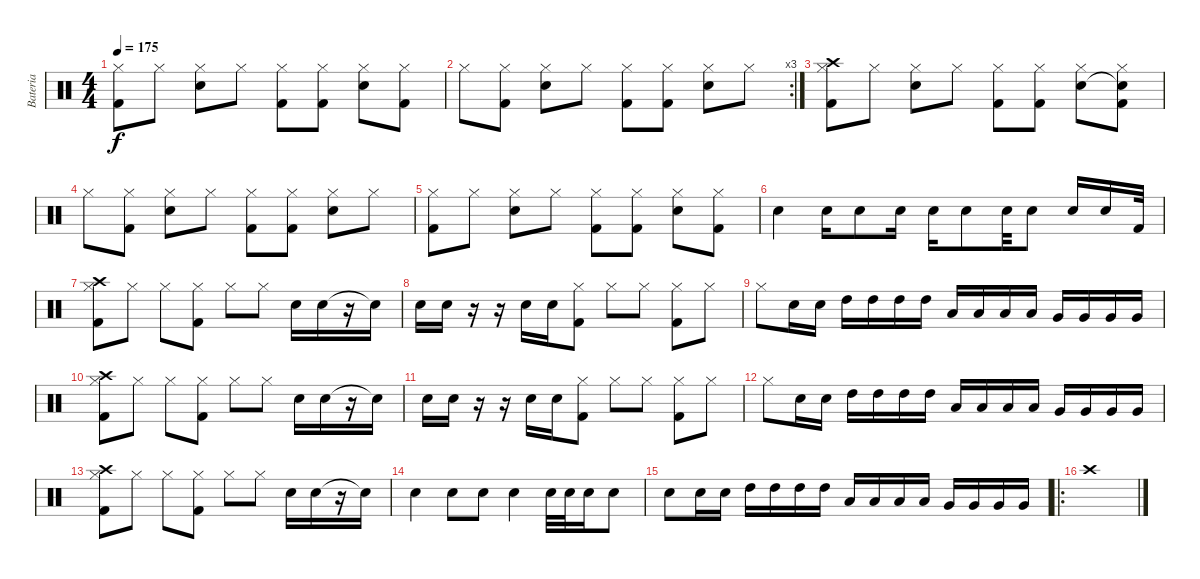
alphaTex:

\track ("Bateria" "Bateria") {instrument percussion}
\staff {score}
\articulation defaults
\ts (4 4)
\tempo 175
\clef neutral
\ks c
("Hi-Hat (closed)" "Kick (hit) 2").8{dy f} "Hi-Hat (closed)".8 ("Hi-Hat (closed)" "Snare (hit) 2").8 "Hi-Hat (closed)".8 ("Hi-Hat (closed)" "Kick (hit) 2").8 ("Hi-Hat (closed)" "Kick (hit) 2").8 ("Hi-Hat (closed)" "Snare (hit) 2").8 ("Hi-Hat (closed)" "Kick (hit) 2").8 |
\rc 3 "Hi-Hat (closed)".8
("Hi-Hat (closed)" "Kick (hit) 2").8 ("Hi-Hat (closed)" "Snare (hit) 2").8 "Hi-Hat (closed)".8 ("Hi-Hat (closed)" "Kick (hit) 2").8 ("Hi-Hat (closed)" "Kick (hit) 2").8 ("Hi-Hat (closed)" "Snare (hit) 2").8 "Hi-Hat (closed)".8 |
("Hi-Hat (closed)" "Crash high (hit)" "Kick (hit) 2").8 "Hi-Hat (closed)".8 ("Hi-Hat (closed)" "Snare (hit) 2").8 "Hi-Hat (closed)".8 ("Hi-Hat (closed)" "Kick (hit) 2").8 ("Hi-Hat (closed)" "Kick (hit) 2").8 ("Hi-Hat (closed)" "Snare (hit) 2").8 ("Hi-Hat (closed)" "Snare (hit)"{t} "Kick (hit) 2").8 |
"Hi-Hat (closed)".8 ("Hi-Hat (closed)" "Kick (hit) 2").8 ("Hi-Hat (closed)" "Snare (hit) 2").8 "Hi-Hat (closed)".8 ("Hi-Hat (closed)" "Kick (hit) 2").8 ("Hi-Hat (closed)" "Kick (hit) 2").8 ("Hi-Hat (closed)" "Snare (hit) 2").8 "Hi-Hat (closed)".8 |
("Hi-Hat (closed)" "Kick (hit) 2").8 "Hi-Hat (closed)".8 ("Hi-Hat (closed)" "Snare (hit) 2").8 "Hi-Hat (closed)".8 ("Hi-Hat (closed)" "Kick (hit) 2").8 ("Hi-Hat (closed)" "Kick (hit) 2").8 ("Hi-Hat (closed)" "Snare (hit) 2").8 ("Hi-Hat (closed)" "Kick (hit) 2").8 |
"Snare (hit) 2".4 "Snare (hit) 2".16 "Snare (hit) 2".8 "Snare (hit) 2".16 "Snare (hit) 2".16 "Snare (hit) 2".8 "Snare (hit) 2".32 "Snare (hit) 2".8 "Snare (hit) 2".16 "Snare (hit) 2".16 "Kick (hit) 2".32 |
("Hi-Hat (closed)" "Crash high (hit)" "Kick (hit) 2").8 "Hi-Hat (closed)".8 "Hi-Hat (closed)".8 ("Hi-Hat (closed)" "Kick (hit) 2").8 "Hi-Hat (closed)".8 "Hi-Hat (closed)".8 "Snare (hit) 2".16 "Snare (hit) 2".16 r.16 "Snare (hit)"{t}.16 |
"Snare (hit) 2".16 "Snare (hit) 2".16 r.16 r.16 "Snare (hit) 2".16 "Snare (hit) 2".16 ("Hi-Hat (closed)" "Kick (hit) 2").8 "Hi-Hat (closed)".8 "Hi-Hat (closed)".8 ("Hi-Hat (closed)" "Kick (hit) 2").8 "Hi-Hat (closed)".8 |
"Hi-Hat (closed)".8 "Snare (hit) 2".16 "Snare (hit) 2".16 "High Tom (hit)".16 "High Tom (hit)".16 "High Tom (hit)".16 "High Tom (hit)".16 "Low Tom (hit)".16 "Low Tom (hit)".16 "Low Tom (hit)".16 "Low Tom (hit)".16 "Very Low Tom (hit)".16 "Very Low Tom (hit)".16 "Very Low Tom (hit)".16 "Very Low Tom (hit)".16 |
("Hi-Hat (closed)" "Crash high (hit)" "Kick (hit) 2").8 "Hi-Hat (closed)".8 "Hi-Hat (closed)".8 ("Hi-Hat (closed)" "Kick (hit) 2").8 "Hi-Hat (closed)".8 "Hi-Hat (closed)".8 "Snare (hit) 2".16 "Snare (hit) 2".16 r.16 "Snare (hit)"{t}.16 |
"Snare (hit) 2".16 "Snare (hit) 2".16 r.16 r.16 "Snare (hit) 2".16 "Snare (hit) 2".16 ("Hi-Hat (closed)" "Kick (hit) 2").8 "Hi-Hat (closed)".8 "Hi-Hat (closed)".8 ("Hi-Hat (closed)" "Kick (hit) 2").8 "Hi-Hat (closed)".8 |
"Hi-Hat (closed)".8 "Snare (hit) 2".16 "Snare (hit) 2".16 "High Tom (hit)".16 "High Tom (hit)".16 "High Tom (hit)".16 "High Tom (hit)".16 "Low Tom (hit)".16 "Low Tom (hit)".16 "Low Tom (hit)".16 "Low Tom (hit)".16 "Very Low Tom (hit)".16 "Very Low Tom (hit)".16 "Very Low Tom (hit)".16 "Very Low Tom (hit)".16 |
("Hi-Hat (closed)" "Crash high (hit)" "Kick (hit) 2").8 "Hi-Hat (closed)".8 "Hi-Hat (closed)".8 ("Hi-Hat (closed)" "Kick (hit) 2").8 "Hi-Hat (closed)".8 "Hi-Hat (closed)".8 "Snare (hit) 2".16 "Snare (hit) 2".16 r.16 "Snare (hit)"{t}.16 |
"Snare (hit) 2".4 "Snare (hit) 2".8 "Snare (hit) 2".8 "Snare (hit) 2".4 "Snare (hit) 2".32 "Snare (hit) 2".32 "Snare (hit) 2".16 "Snare (hit) 2".8 |
"Snare (hit) 2".8 "Snare (hit) 2".16 "Snare (hit) 2".16 "High Tom (hit)".16 "High Tom (hit)".16 "High Tom (hit)".16 "High Tom (hit)".16 "Low Tom (hit)".16 "Low Tom (hit)".16 "Low Tom (hit)".16 "Low Tom (hit)".16 "Very Low Tom (hit)".16 "Very Low Tom (hit)".16 "Very Low Tom (hit)".16 "Very Low Tom (hit)".16 |
\ro "Crash high (hit)".1
